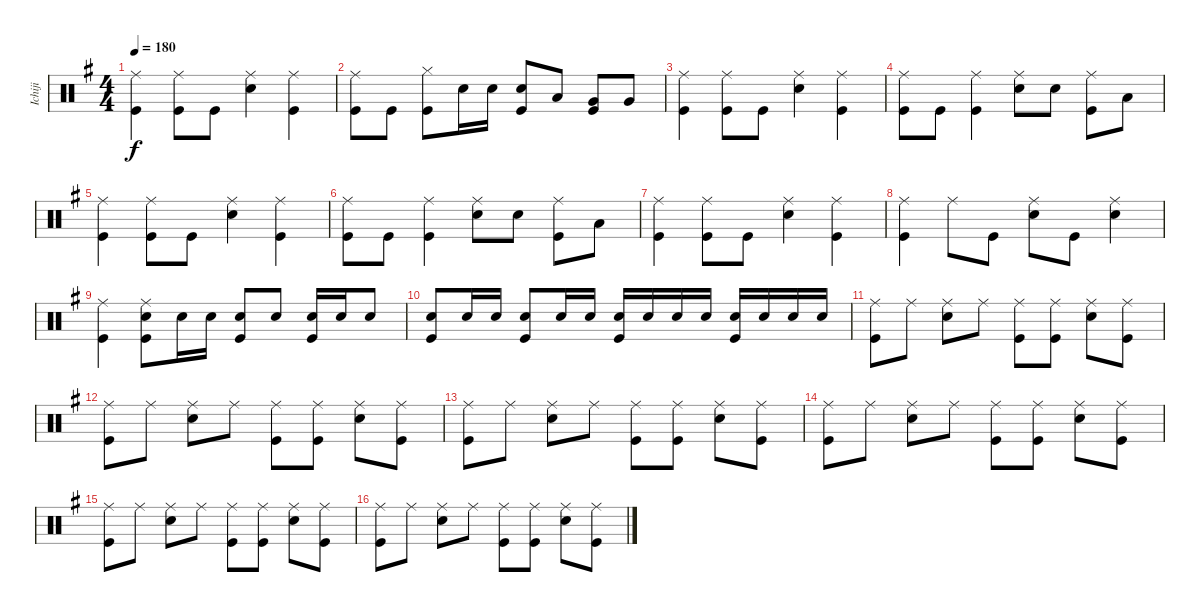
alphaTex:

\track ("Ichiji" "Ichiji") {instrument percussion}
\staff {score}
\articulation defaults
\ts (4 4)
\tempo 180
\clef neutral
\ks g
("Ride (middle)" "Kick (hit)").4{dy f} ("Ride (middle)" "Kick (hit)").8 "Kick (hit)".8 ("Ride (middle)" "Snare (hit) 2").4 ("Ride (middle)" "Kick (hit)").4 |
("Ride (middle)" "Kick (hit)").8 "Kick (hit)".8 ("Hi-Hat (closed)" "Kick (hit)").8 "Snare (hit) 2".16 "Snare (hit) 2".16 ("Snare (hit) 2" "Kick (hit)").8 "Low Tom (hit)".8 ("Very Low Tom (hit)" "Kick (hit)").8 "Very Low Tom (hit)".8 |
("Ride (middle)" "Kick (hit)").4 ("Ride (middle)" "Kick (hit)").8 "Kick (hit)".8 ("Ride (middle)" "Snare (hit) 2").4 ("Ride (middle)" "Kick (hit)").4 |
("Ride (middle)" "Kick (hit)").8 "Kick (hit)".8 ("Ride (middle)" "Kick (hit)").4 ("Ride (middle)" "Snare (hit) 2").8 "Snare (hit) 2".8 ("Ride (middle)" "Kick (hit)").8 "Low Tom (hit)".8 |
("Ride (middle)" "Kick (hit)").4 ("Ride (middle)" "Kick (hit)").8 "Kick (hit)".8 ("Ride (middle)" "Snare (hit) 2").4 ("Ride (middle)" "Kick (hit)").4 |
("Ride (middle)" "Kick (hit)").8 "Kick (hit)".8 ("Ride (middle)" "Kick (hit)").4 ("Ride (middle)" "Snare (hit) 2").8 "Snare (hit) 2".8 ("Ride (middle)" "Kick (hit)").8 "Low Tom (hit)".8 |
("Ride (middle)" "Kick (hit)").4 ("Ride (middle)" "Kick (hit)").8 "Kick (hit)".8 ("Ride (middle)" "Snare (hit) 2").4 ("Ride (middle)" "Kick (hit)").4 |
("Ride (middle)" "Kick (hit)").4 "Ride (middle)".8 "Kick (hit)".8 ("Ride (middle)" "Snare (hit) 2").8 "Kick (hit)".8 ("Ride (middle)" "Snare (hit) 2").4 |
("Ride (middle)" "Kick (hit)").4 ("Ride (middle)" "Snare (hit) 2" "Kick (hit)").8 "Snare (hit) 2".16 "Snare (hit) 2".16 ("Snare (hit) 2" "Kick (hit)").8 "Snare (hit) 2".8 ("Snare (hit) 2" "Kick (hit)").16 "Snare (hit) 2".16 "Snare (hit) 2".8 |
("Snare (hit) 2" "Kick (hit)").8 "Snare (hit) 2".16 "Snare (hit) 2".16 ("Snare (hit) 2" "Kick (hit)").8 "Snare (hit) 2".16 "Snare (hit) 2".16 ("Snare (hit) 2" "Kick (hit)").16 "Snare (hit) 2".16 "Snare (hit) 2".16 "Snare (hit) 2".16 ("Snare (hit) 2" "Kick (hit)").16 "Snare (hit) 2".16 "Snare (hit) 2".16 "Snare (hit) 2".16 |
("Ride (middle)" "Kick (hit)").8 "Ride (middle)".8 ("Ride (middle)" "Snare (hit) 2").8 "Ride (middle)".8 ("Ride (middle)" "Kick (hit)").8 ("Ride (middle)" "Kick (hit)").8 ("Ride (middle)" "Snare (hit) 2").8 ("Ride (middle)" "Kick (hit)").8 |
("Ride (middle)" "Kick (hit)").8 "Ride (middle)".8 ("Ride (middle)" "Snare (hit) 2").8 "Ride (middle)".8 ("Ride (middle)" "Kick (hit)").8 ("Ride (middle)" "Kick (hit)").8 ("Ride (middle)" "Snare (hit) 2").8 ("Ride (middle)" "Kick (hit)").8 |
("Ride (middle)" "Kick (hit)").8 "Ride (middle)".8 ("Ride (middle)" "Snare (hit) 2").8 "Ride (middle)".8 ("Ride (middle)" "Kick (hit)").8 ("Ride (middle)" "Kick (hit)").8 ("Ride (middle)" "Snare (hit) 2").8 ("Ride (middle)" "Kick (hit)").8 |
("Ride (middle)" "Kick (hit)").8 "Ride (middle)".8 ("Ride (middle)" "Snare (hit) 2").8 "Ride (middle)".8 ("Ride (middle)" "Kick (hit)").8 ("Ride (middle)" "Kick (hit)").8 ("Ride (middle)" "Snare (hit) 2").8 ("Ride (middle)" "Kick (hit)").8 |
("Ride (middle)" "Kick (hit)").8 "Ride (middle)".8 ("Ride (middle)" "Snare (hit) 2").8 "Ride (middle)".8 ("Ride (middle)" "Kick (hit)").8 ("Ride (middle)" "Kick (hit)").8 ("Ride (middle)" "Snare (hit) 2").8 ("Ride (middle)" "Kick (hit)").8 |
("Ride (middle)" "Kick (hit)").8 "Ride (middle)".8 ("Ride (middle)" "Snare (hit) 2").8 "Ride (middle)".8 ("Ride (middle)" "Kick (hit)").8 ("Ride (middle)" "Kick (hit)").8 ("Ride (middle)" "Snare (hit) 2").8 ("Ride (middle)" "Kick (hit)").8
